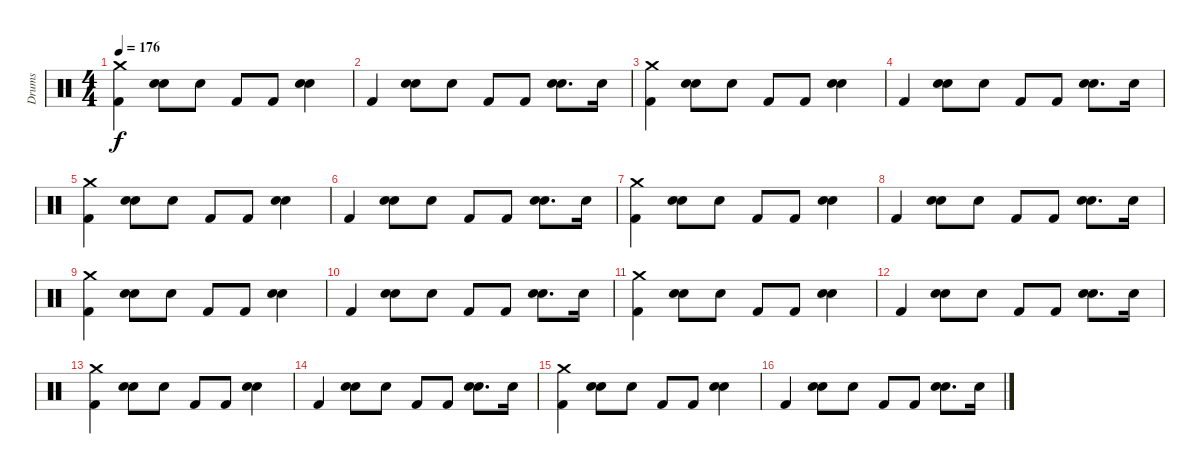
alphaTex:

\track ("Drums" "Drums") {instrument percussion}
\staff {score}
\articulation defaults
\ts (4 4)
\tempo 176
\clef neutral
\ks c
("Kick (hit) 2" "Crash medium (hit)").4{dy f volume 15} ("Snare (hit) 2" "Hand Clap (hit)").8 "Hand Clap (hit)".8 "Kick (hit) 2".8 "Kick (hit) 2".8 ("Snare (hit) 2" "Hand Clap (hit)").4 |
"Kick (hit) 2".4 ("Snare (hit) 2" "Hand Clap (hit)").8 "Hand Clap (hit)".8 "Kick (hit) 2".8 "Kick (hit) 2".8 ("Snare (hit) 2" "Hand Clap (hit)").8{d} "Snare (hit) 2".16 |
("Kick (hit) 2" "Crash medium (hit)").4{volume 15} ("Snare (hit) 2" "Hand Clap (hit)").8 "Hand Clap (hit)".8 "Kick (hit) 2".8 "Kick (hit) 2".8 ("Snare (hit) 2" "Hand Clap (hit)").4 |
"Kick (hit) 2".4 ("Snare (hit) 2" "Hand Clap (hit)").8 "Hand Clap (hit)".8 "Kick (hit) 2".8 "Kick (hit) 2".8 ("Snare (hit) 2" "Hand Clap (hit)").8{d} "Snare (hit) 2".16 |
("Kick (hit) 2" "Crash medium (hit)").4{volume 15} ("Snare (hit) 2" "Hand Clap (hit)").8 "Hand Clap (hit)".8 "Kick (hit) 2".8 "Kick (hit) 2".8 ("Snare (hit) 2" "Hand Clap (hit)").4 |
"Kick (hit) 2".4 ("Snare (hit) 2" "Hand Clap (hit)").8 "Hand Clap (hit)".8 "Kick (hit) 2".8 "Kick (hit) 2".8 ("Snare (hit) 2" "Hand Clap (hit)").8{d} "Snare (hit) 2".16 |
("Kick (hit) 2" "Crash medium (hit)").4{volume 15} ("Snare (hit) 2" "Hand Clap (hit)").8 "Hand Clap (hit)".8 "Kick (hit) 2".8 "Kick (hit) 2".8 ("Snare (hit) 2" "Hand Clap (hit)").4 |
"Kick (hit) 2".4 ("Snare (hit) 2" "Hand Clap (hit)").8 "Hand Clap (hit)".8 "Kick (hit) 2".8 "Kick (hit) 2".8 ("Snare (hit) 2" "Hand Clap (hit)").8{d} "Snare (hit) 2".16 |
("Kick (hit) 2" "Crash medium (hit)").4{volume 15} ("Snare (hit) 2" "Hand Clap (hit)").8 "Hand Clap (hit)".8 "Kick (hit) 2".8 "Kick (hit) 2".8 ("Snare (hit) 2" "Hand Clap (hit)").4 |
"Kick (hit) 2".4 ("Snare (hit) 2" "Hand Clap (hit)").8 "Hand Clap (hit)".8 "Kick (hit) 2".8 "Kick (hit) 2".8 ("Snare (hit) 2" "Hand Clap (hit)").8{d} "Snare (hit) 2".16 |
("Kick (hit) 2" "Crash medium (hit)").4{volume 15} ("Snare (hit) 2" "Hand Clap (hit)").8 "Hand Clap (hit)".8 "Kick (hit) 2".8 "Kick (hit) 2".8 ("Snare (hit) 2" "Hand Clap (hit)").4 |
"Kick (hit) 2".4 ("Snare (hit) 2" "Hand Clap (hit)").8 "Hand Clap (hit)".8 "Kick (hit) 2".8 "Kick (hit) 2".8 ("Snare (hit) 2" "Hand Clap (hit)").8{d} "Snare (hit) 2".16 |
("Kick (hit) 2" "Crash medium (hit)").4{volume 15} ("Snare (hit) 2" "Hand Clap (hit)").8 "Hand Clap (hit)".8 "Kick (hit) 2".8 "Kick (hit) 2".8 ("Snare (hit) 2" "Hand Clap (hit)").4 |
"Kick (hit) 2".4 ("Snare (hit) 2" "Hand Clap (hit)").8 "Hand Clap (hit)".8 "Kick (hit) 2".8 "Kick (hit) 2".8 ("Snare (hit) 2" "Hand Clap (hit)").8{d} "Snare (hit) 2".16 |
("Kick (hit) 2" "Crash medium (hit)").4{volume 15} ("Snare (hit) 2" "Hand Clap (hit)").8 "Hand Clap (hit)".8 "Kick (hit) 2".8 "Kick (hit) 2".8 ("Snare (hit) 2" "Hand Clap (hit)").4 |
"Kick (hit) 2".4 ("Snare (hit) 2" "Hand Clap (hit)").8 "Hand Clap (hit)".8 "Kick (hit) 2".8 "Kick (hit) 2".8 ("Snare (hit) 2" "Hand Clap (hit)").8{d} "Snare (hit) 2".16
